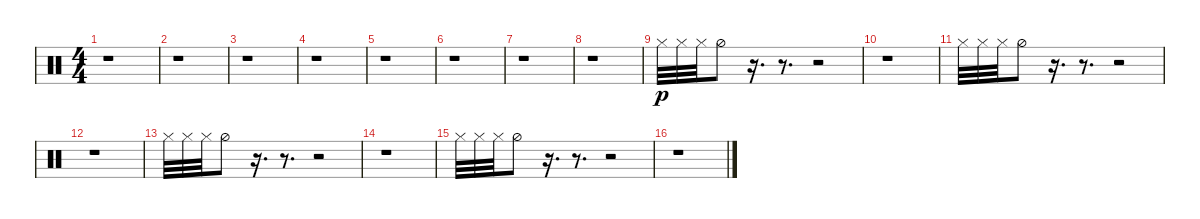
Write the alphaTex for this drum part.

\defaultSystemsLayout 4
\bracketExtendMode groupsimilarinstruments
\singleTrackTrackNamePolicy hidden
\multiTrackTrackNamePolicy hidden
\firstSystemTrackNameOrientation horizontal
\otherSystemsTrackNameOrientation horizontal
\track ("Максим Удалов" "Drums") {instrument percussion}
\staff {score}
\articulation defaults
\ts (4 4)
\tempo (85 hide)
\clef neutral
\scale
1.02648
\ks c
r.1{dy mf} |
\scale
0.973518 r.1 |
\scale
1.02648 r.1 |
\scale
0.973518 r.1 |
\scale
1.02648 r.1 |
\scale
0.973518 r.1 |
\scale
1.02648 r.1 |
\tempo (92 hide)
\scale
0.973518 r.1 |
\scale
1.02648 "Hi-Hat (closed)".32{dy p} "Hi-Hat (closed)".32 "Hi-Hat (closed)".32 "Hi-Hat (half)".8 r.16{d} r.8{d} r.2 |
\scale
0.973518 r.1 |
\scale
1.02648 "Hi-Hat (closed)".32 "Hi-Hat (closed)".32 "Hi-Hat (closed)".32 "Hi-Hat (half)".8 r.16{d} r.8{d} r.2 |
\scale
0.973518 r.1 |
\scale
1.02648 "Hi-Hat (closed)".32 "Hi-Hat (closed)".32 "Hi-Hat (closed)".32 "Hi-Hat (half)".8 r.16{d} r.8{d} r.2 |
\scale
0.973518 r.1 |
\scale
1.02648 "Hi-Hat (closed)".32 "Hi-Hat (closed)".32 "Hi-Hat (closed)".32 "Hi-Hat (half)".8 r.16{d} r.8{d} r.2 |
\scale
0.973518 r.1
